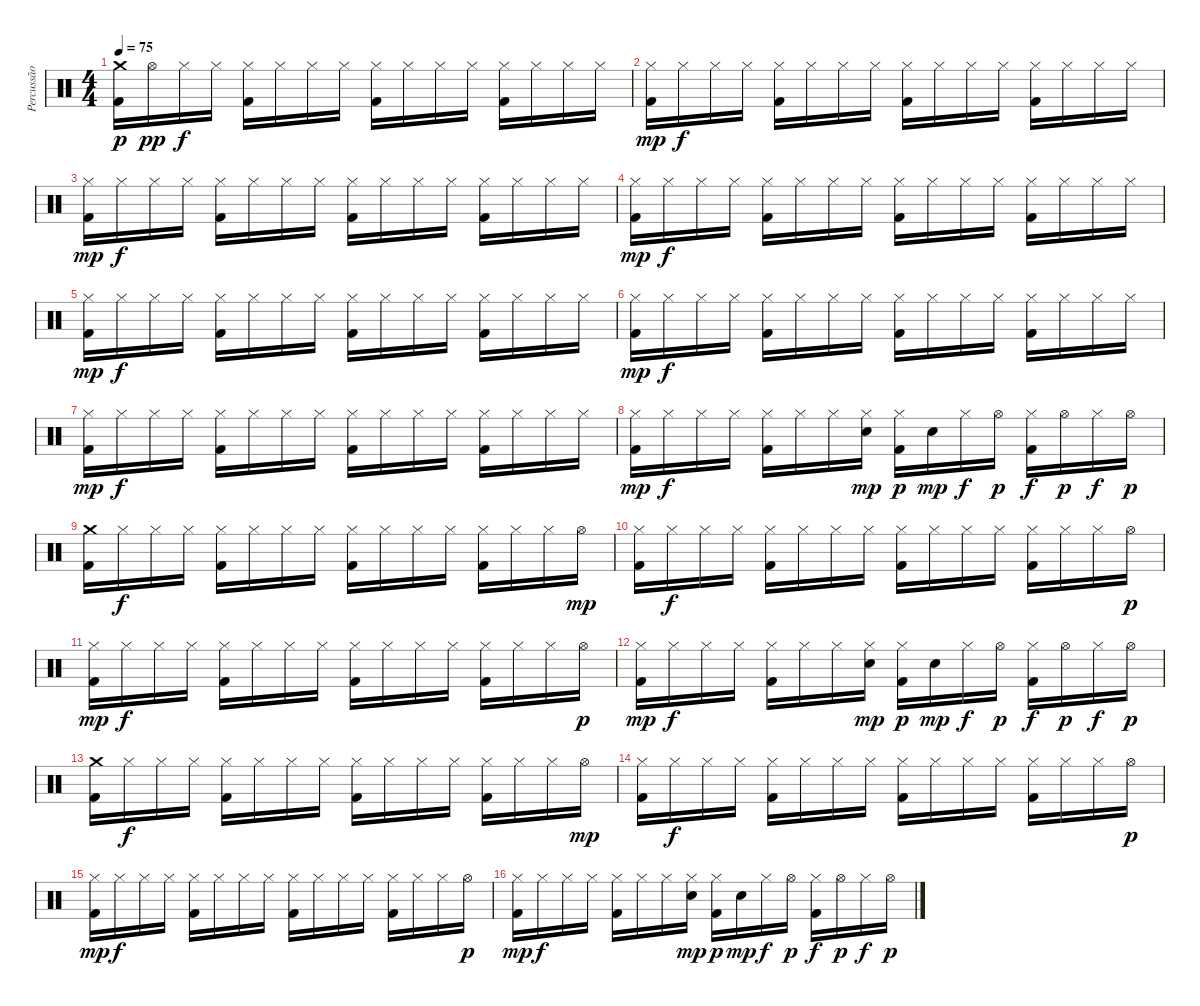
\track ("Percussão" "Percussão") {instrument percussion}
\staff {score}
\articulation defaults
\ts (4 4)
\tempo 75
\clef neutral
\ks c
("Crash medium (hit)" "Kick (hit) 2").16{dy p} "Hi-Hat (open)".16{dy pp} "Hi-Hat (closed)".16{dy f} "Hi-Hat (closed)".16 ("Hi-Hat (closed)" "Kick (hit) 2").16 "Hi-Hat (closed)".16 "Hi-Hat (closed)".16 "Hi-Hat (closed)".16 ("Hi-Hat (closed)" "Kick (hit) 2").16 "Hi-Hat (closed)".16 "Hi-Hat (closed)".16 "Hi-Hat (closed)".16 ("Hi-Hat (closed)" "Kick (hit) 2").16 "Hi-Hat (closed)".16 "Hi-Hat (closed)".16 "Hi-Hat (closed)".16 |
("Hi-Hat (closed)" "Kick (hit) 2").16{dy mp} "Hi-Hat (closed)".16{dy f} "Hi-Hat (closed)".16 "Hi-Hat (closed)".16 ("Hi-Hat (closed)" "Kick (hit) 2").16 "Hi-Hat (closed)".16 "Hi-Hat (closed)".16 "Hi-Hat (closed)".16 ("Hi-Hat (closed)" "Kick (hit) 2").16 "Hi-Hat (closed)".16 "Hi-Hat (closed)".16 "Hi-Hat (closed)".16 ("Hi-Hat (closed)" "Kick (hit) 2").16 "Hi-Hat (closed)".16 "Hi-Hat (closed)".16 "Hi-Hat (closed)".16 |
("Hi-Hat (closed)" "Kick (hit) 2").16{dy mp} "Hi-Hat (closed)".16{dy f} "Hi-Hat (closed)".16 "Hi-Hat (closed)".16 ("Hi-Hat (closed)" "Kick (hit) 2").16 "Hi-Hat (closed)".16 "Hi-Hat (closed)".16 "Hi-Hat (closed)".16 ("Hi-Hat (closed)" "Kick (hit) 2").16 "Hi-Hat (closed)".16 "Hi-Hat (closed)".16 "Hi-Hat (closed)".16 ("Hi-Hat (closed)" "Kick (hit) 2").16 "Hi-Hat (closed)".16 "Hi-Hat (closed)".16 "Hi-Hat (closed)".16 |
("Hi-Hat (closed)" "Kick (hit) 2").16{dy mp} "Hi-Hat (closed)".16{dy f} "Hi-Hat (closed)".16 "Hi-Hat (closed)".16 ("Hi-Hat (closed)" "Kick (hit) 2").16 "Hi-Hat (closed)".16 "Hi-Hat (closed)".16 "Hi-Hat (closed)".16 ("Hi-Hat (closed)" "Kick (hit) 2").16 "Hi-Hat (closed)".16 "Hi-Hat (closed)".16 "Hi-Hat (closed)".16 ("Hi-Hat (closed)" "Kick (hit) 2").16 "Hi-Hat (closed)".16 "Hi-Hat (closed)".16 "Hi-Hat (closed)".16 |
("Hi-Hat (closed)" "Kick (hit) 2").16{dy mp} "Hi-Hat (closed)".16{dy f} "Hi-Hat (closed)".16 "Hi-Hat (closed)".16 ("Hi-Hat (closed)" "Kick (hit) 2").16 "Hi-Hat (closed)".16 "Hi-Hat (closed)".16 "Hi-Hat (closed)".16 ("Hi-Hat (closed)" "Kick (hit) 2").16 "Hi-Hat (closed)".16 "Hi-Hat (closed)".16 "Hi-Hat (closed)".16 ("Hi-Hat (closed)" "Kick (hit) 2").16 "Hi-Hat (closed)".16 "Hi-Hat (closed)".16 "Hi-Hat (closed)".16 |
("Hi-Hat (closed)" "Kick (hit) 2").16{dy mp} "Hi-Hat (closed)".16{dy f} "Hi-Hat (closed)".16 "Hi-Hat (closed)".16 ("Hi-Hat (closed)" "Kick (hit) 2").16 "Hi-Hat (closed)".16 "Hi-Hat (closed)".16 "Hi-Hat (closed)".16 ("Hi-Hat (closed)" "Kick (hit) 2").16 "Hi-Hat (closed)".16 "Hi-Hat (closed)".16 "Hi-Hat (closed)".16 ("Hi-Hat (closed)" "Kick (hit) 2").16 "Hi-Hat (closed)".16 "Hi-Hat (closed)".16 "Hi-Hat (closed)".16 |
("Hi-Hat (closed)" "Kick (hit) 2").16{dy mp} "Hi-Hat (closed)".16{dy f} "Hi-Hat (closed)".16 "Hi-Hat (closed)".16 ("Hi-Hat (closed)" "Kick (hit) 2").16 "Hi-Hat (closed)".16 "Hi-Hat (closed)".16 "Hi-Hat (closed)".16 ("Hi-Hat (closed)" "Kick (hit) 2").16 "Hi-Hat (closed)".16 "Hi-Hat (closed)".16 "Hi-Hat (closed)".16 ("Hi-Hat (closed)" "Kick (hit) 2").16 "Hi-Hat (closed)".16 "Hi-Hat (closed)".16 "Hi-Hat (closed)".16 |
("Hi-Hat (closed)" "Kick (hit) 2").16{dy mp} "Hi-Hat (closed)".16{dy f} "Hi-Hat (closed)".16 "Hi-Hat (closed)".16 ("Hi-Hat (closed)" "Kick (hit) 2").16 "Hi-Hat (closed)".16 "Hi-Hat (closed)".16 ("Hi-Hat (closed)" "Snare (hit) 2").16{dy mp} ("Hi-Hat (closed)" "Kick (hit) 2").16{dy p} "Snare (hit) 2".16{dy mp} "Hi-Hat (closed)".16{dy f} "Hi-Hat (open)".16{dy p} ("Hi-Hat (closed)" "Kick (hit) 2").16{dy f} "Hi-Hat (open)".16{dy p} "Hi-Hat (closed)".16{dy f} "Hi-Hat (open)".16{dy p} |
("Crash medium (hit)" "Kick (hit) 2").16 "Hi-Hat (closed)".16{dy f} "Hi-Hat (closed)".16 "Hi-Hat (closed)".16 ("Hi-Hat (closed)" "Kick (hit) 2").16 "Hi-Hat (closed)".16 "Hi-Hat (closed)".16 "Hi-Hat (closed)".16 ("Hi-Hat (closed)" "Kick (hit) 2").16 "Hi-Hat (closed)".16 "Hi-Hat (closed)".16 "Hi-Hat (closed)".16 ("Hi-Hat (closed)" "Kick (hit) 2").16 "Hi-Hat (closed)".16 "Hi-Hat (closed)".16 "Hi-Hat (open)".16{dy mp} |
("Hi-Hat (closed)" "Kick (hit) 2").16 "Hi-Hat (closed)".16{dy f} "Hi-Hat (closed)".16 "Hi-Hat (closed)".16 ("Hi-Hat (closed)" "Kick (hit) 2").16 "Hi-Hat (closed)".16 "Hi-Hat (closed)".16 "Hi-Hat (closed)".16 ("Hi-Hat (closed)" "Kick (hit) 2").16 "Hi-Hat (closed)".16 "Hi-Hat (closed)".16 "Hi-Hat (closed)".16 ("Hi-Hat (closed)" "Kick (hit) 2").16 "Hi-Hat (closed)".16 "Hi-Hat (closed)".16 "Hi-Hat (open)".16{dy p} |
("Hi-Hat (closed)" "Kick (hit) 2").16{dy mp} "Hi-Hat (closed)".16{dy f} "Hi-Hat (closed)".16 "Hi-Hat (closed)".16 ("Hi-Hat (closed)" "Kick (hit) 2").16 "Hi-Hat (closed)".16 "Hi-Hat (closed)".16 "Hi-Hat (closed)".16 ("Hi-Hat (closed)" "Kick (hit) 2").16 "Hi-Hat (closed)".16 "Hi-Hat (closed)".16 "Hi-Hat (closed)".16 ("Hi-Hat (closed)" "Kick (hit) 2").16 "Hi-Hat (closed)".16 "Hi-Hat (closed)".16 "Hi-Hat (open)".16{dy p} |
("Hi-Hat (closed)" "Kick (hit) 2").16{dy mp} "Hi-Hat (closed)".16{dy f} "Hi-Hat (closed)".16 "Hi-Hat (closed)".16 ("Hi-Hat (closed)" "Kick (hit) 2").16 "Hi-Hat (closed)".16 "Hi-Hat (closed)".16 ("Hi-Hat (closed)" "Snare (hit) 2").16{dy mp} ("Hi-Hat (closed)" "Kick (hit) 2").16{dy p} "Snare (hit) 2".16{dy mp} "Hi-Hat (closed)".16{dy f} "Hi-Hat (open)".16{dy p} ("Hi-Hat (closed)" "Kick (hit) 2").16{dy f} "Hi-Hat (open)".16{dy p} "Hi-Hat (closed)".16{dy f} "Hi-Hat (open)".16{dy p} |
("Crash medium (hit)" "Kick (hit) 2").16 "Hi-Hat (closed)".16{dy f} "Hi-Hat (closed)".16 "Hi-Hat (closed)".16 ("Hi-Hat (closed)" "Kick (hit) 2").16 "Hi-Hat (closed)".16 "Hi-Hat (closed)".16 "Hi-Hat (closed)".16 ("Hi-Hat (closed)" "Kick (hit) 2").16 "Hi-Hat (closed)".16 "Hi-Hat (closed)".16 "Hi-Hat (closed)".16 ("Hi-Hat (closed)" "Kick (hit) 2").16 "Hi-Hat (closed)".16 "Hi-Hat (closed)".16 "Hi-Hat (open)".16{dy mp} |
("Hi-Hat (closed)" "Kick (hit) 2").16 "Hi-Hat (closed)".16{dy f} "Hi-Hat (closed)".16 "Hi-Hat (closed)".16 ("Hi-Hat (closed)" "Kick (hit) 2").16 "Hi-Hat (closed)".16 "Hi-Hat (closed)".16 "Hi-Hat (closed)".16 ("Hi-Hat (closed)" "Kick (hit) 2").16 "Hi-Hat (closed)".16 "Hi-Hat (closed)".16 "Hi-Hat (closed)".16 ("Hi-Hat (closed)" "Kick (hit) 2").16 "Hi-Hat (closed)".16 "Hi-Hat (closed)".16 "Hi-Hat (open)".16{dy p} |
("Hi-Hat (closed)" "Kick (hit) 2").16{dy mp} "Hi-Hat (closed)".16{dy f} "Hi-Hat (closed)".16 "Hi-Hat (closed)".16 ("Hi-Hat (closed)" "Kick (hit) 2").16 "Hi-Hat (closed)".16 "Hi-Hat (closed)".16 "Hi-Hat (closed)".16 ("Hi-Hat (closed)" "Kick (hit) 2").16 "Hi-Hat (closed)".16 "Hi-Hat (closed)".16 "Hi-Hat (closed)".16 ("Hi-Hat (closed)" "Kick (hit) 2").16 "Hi-Hat (closed)".16 "Hi-Hat (closed)".16 "Hi-Hat (open)".16{dy p} |
("Hi-Hat (closed)" "Kick (hit) 2").16{dy mp} "Hi-Hat (closed)".16{dy f} "Hi-Hat (closed)".16 "Hi-Hat (closed)".16 ("Hi-Hat (closed)" "Kick (hit) 2").16 "Hi-Hat (closed)".16 "Hi-Hat (closed)".16 ("Hi-Hat (closed)" "Snare (hit) 2").16{dy mp} ("Hi-Hat (closed)" "Kick (hit) 2").16{dy p} "Snare (hit) 2".16{dy mp} "Hi-Hat (closed)".16{dy f} "Hi-Hat (open)".16{dy p} ("Hi-Hat (closed)" "Kick (hit) 2").16{dy f} "Hi-Hat (open)".16{dy p} "Hi-Hat (closed)".16{dy f} "Hi-Hat (open)".16{dy p}
